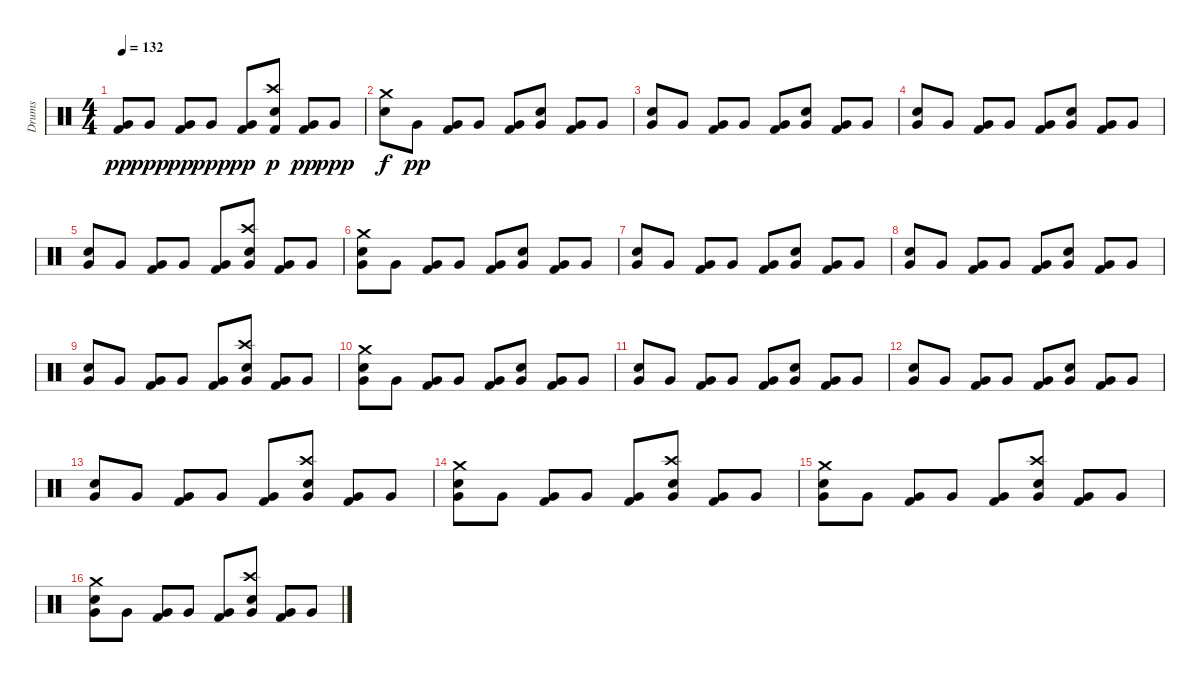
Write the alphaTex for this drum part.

\track ("Drums" "Drums") {instrument percussion}
\staff {score}
\articulation defaults
\ts (4 4)
\tempo 132
\clef neutral
\ks c
("Very Low Tom (hit)" "Kick (hit) 2").8{dy pp} "Very Low Tom (hit)".8{dy ppp} ("Very Low Tom (hit)" "Kick (hit) 2").8{dy pp} "Very Low Tom (hit)".8{dy ppp} ("Very Low Tom (hit)" "Kick (hit) 2").8{dy pp} ("Crash high (hit)" "Electric Snare (hit)" "Kick (hit) 2").8{dy p} ("Very Low Tom (hit)" "Kick (hit) 2").8{dy pp} "Very Low Tom (hit)".8{dy ppp} |
("Crash medium (hit)" "Electric Snare (hit)").8{dy f} "Very Low Tom (hit)".8{dy pp} ("Very Low Tom (hit)" "Kick (hit) 2").8 "Very Low Tom (hit)".8 ("Very Low Tom (hit)" "Kick (hit) 2").8 ("Very Low Tom (hit)" "Electric Snare (hit)").8 ("Very Low Tom (hit)" "Kick (hit) 2").8 "Very Low Tom (hit)".8 |
("Very Low Tom (hit)" "Electric Snare (hit)").8 "Very Low Tom (hit)".8 ("Very Low Tom (hit)" "Kick (hit) 2").8 "Very Low Tom (hit)".8 ("Very Low Tom (hit)" "Kick (hit) 2").8 ("Very Low Tom (hit)" "Electric Snare (hit)").8 ("Very Low Tom (hit)" "Kick (hit) 2").8 "Very Low Tom (hit)".8 |
("Very Low Tom (hit)" "Electric Snare (hit)").8 "Very Low Tom (hit)".8 ("Very Low Tom (hit)" "Kick (hit) 2").8 "Very Low Tom (hit)".8 ("Very Low Tom (hit)" "Kick (hit) 2").8 ("Very Low Tom (hit)" "Electric Snare (hit)").8 ("Very Low Tom (hit)" "Kick (hit) 2").8 "Very Low Tom (hit)".8 |
("Very Low Tom (hit)" "Electric Snare (hit)").8 "Very Low Tom (hit)".8 ("Very Low Tom (hit)" "Kick (hit) 2").8 "Very Low Tom (hit)".8 ("Very Low Tom (hit)" "Kick (hit) 2").8 ("Crash high (hit)" "Very Low Tom (hit)" "Electric Snare (hit)").8 ("Very Low Tom (hit)" "Kick (hit) 2").8 "Very Low Tom (hit)".8 |
("Crash medium (hit)" "Very Low Tom (hit)" "Electric Snare (hit)").8 "Very Low Tom (hit)".8 ("Very Low Tom (hit)" "Kick (hit) 2").8 "Very Low Tom (hit)".8 ("Very Low Tom (hit)" "Kick (hit) 2").8 ("Very Low Tom (hit)" "Electric Snare (hit)").8 ("Very Low Tom (hit)" "Kick (hit) 2").8 "Very Low Tom (hit)".8 |
("Very Low Tom (hit)" "Electric Snare (hit)").8 "Very Low Tom (hit)".8 ("Very Low Tom (hit)" "Kick (hit) 2").8 "Very Low Tom (hit)".8 ("Very Low Tom (hit)" "Kick (hit) 2").8 ("Very Low Tom (hit)" "Electric Snare (hit)").8 ("Very Low Tom (hit)" "Kick (hit) 2").8 "Very Low Tom (hit)".8 |
("Very Low Tom (hit)" "Electric Snare (hit)").8 "Very Low Tom (hit)".8 ("Very Low Tom (hit)" "Kick (hit) 2").8 "Very Low Tom (hit)".8 ("Very Low Tom (hit)" "Kick (hit) 2").8 ("Very Low Tom (hit)" "Electric Snare (hit)").8 ("Very Low Tom (hit)" "Kick (hit) 2").8 "Very Low Tom (hit)".8 |
("Very Low Tom (hit)" "Electric Snare (hit)").8 "Very Low Tom (hit)".8 ("Very Low Tom (hit)" "Kick (hit) 2").8 "Very Low Tom (hit)".8 ("Very Low Tom (hit)" "Kick (hit) 2").8 ("Crash high (hit)" "Very Low Tom (hit)" "Electric Snare (hit)").8 ("Very Low Tom (hit)" "Kick (hit) 2").8 "Very Low Tom (hit)".8 |
("Crash medium (hit)" "Very Low Tom (hit)" "Electric Snare (hit)").8 "Very Low Tom (hit)".8 ("Very Low Tom (hit)" "Kick (hit) 2").8 "Very Low Tom (hit)".8 ("Very Low Tom (hit)" "Kick (hit) 2").8 ("Very Low Tom (hit)" "Electric Snare (hit)").8 ("Very Low Tom (hit)" "Kick (hit) 2").8 "Very Low Tom (hit)".8 |
("Very Low Tom (hit)" "Electric Snare (hit)").8 "Very Low Tom (hit)".8 ("Very Low Tom (hit)" "Kick (hit) 2").8 "Very Low Tom (hit)".8 ("Very Low Tom (hit)" "Kick (hit) 2").8 ("Very Low Tom (hit)" "Electric Snare (hit)").8 ("Very Low Tom (hit)" "Kick (hit) 2").8 "Very Low Tom (hit)".8 |
("Very Low Tom (hit)" "Electric Snare (hit)").8 "Very Low Tom (hit)".8 ("Very Low Tom (hit)" "Kick (hit) 2").8 "Very Low Tom (hit)".8 ("Very Low Tom (hit)" "Kick (hit) 2").8 ("Very Low Tom (hit)" "Electric Snare (hit)").8 ("Very Low Tom (hit)" "Kick (hit) 2").8 "Very Low Tom (hit)".8 |
("Very Low Tom (hit)" "Electric Snare (hit)").8 "Very Low Tom (hit)".8 ("Very Low Tom (hit)" "Kick (hit) 2").8 "Very Low Tom (hit)".8 ("Very Low Tom (hit)" "Kick (hit) 2").8 ("Crash high (hit)" "Very Low Tom (hit)" "Electric Snare (hit)").8 ("Very Low Tom (hit)" "Kick (hit) 2").8 "Very Low Tom (hit)".8 |
("Crash medium (hit)" "Very Low Tom (hit)" "Electric Snare (hit)").8 "Very Low Tom (hit)".8 ("Very Low Tom (hit)" "Kick (hit) 2").8 "Very Low Tom (hit)".8 ("Very Low Tom (hit)" "Kick (hit) 2").8 ("Crash high (hit)" "Very Low Tom (hit)" "Electric Snare (hit)").8 ("Very Low Tom (hit)" "Kick (hit) 2").8 "Very Low Tom (hit)".8 |
("Crash medium (hit)" "Very Low Tom (hit)" "Electric Snare (hit)").8 "Very Low Tom (hit)".8 ("Very Low Tom (hit)" "Kick (hit) 2").8 "Very Low Tom (hit)".8 ("Very Low Tom (hit)" "Kick (hit) 2").8 ("Crash high (hit)" "Very Low Tom (hit)" "Electric Snare (hit)").8 ("Very Low Tom (hit)" "Kick (hit) 2").8 "Very Low Tom (hit)".8 |
("Crash medium (hit)" "Very Low Tom (hit)" "Electric Snare (hit)").8 "Very Low Tom (hit)".8 ("Very Low Tom (hit)" "Kick (hit) 2").8 "Very Low Tom (hit)".8 ("Very Low Tom (hit)" "Kick (hit) 2").8 ("Crash high (hit)" "Very Low Tom (hit)" "Electric Snare (hit)").8 ("Very Low Tom (hit)" "Kick (hit) 2").8 "Very Low Tom (hit)".8
